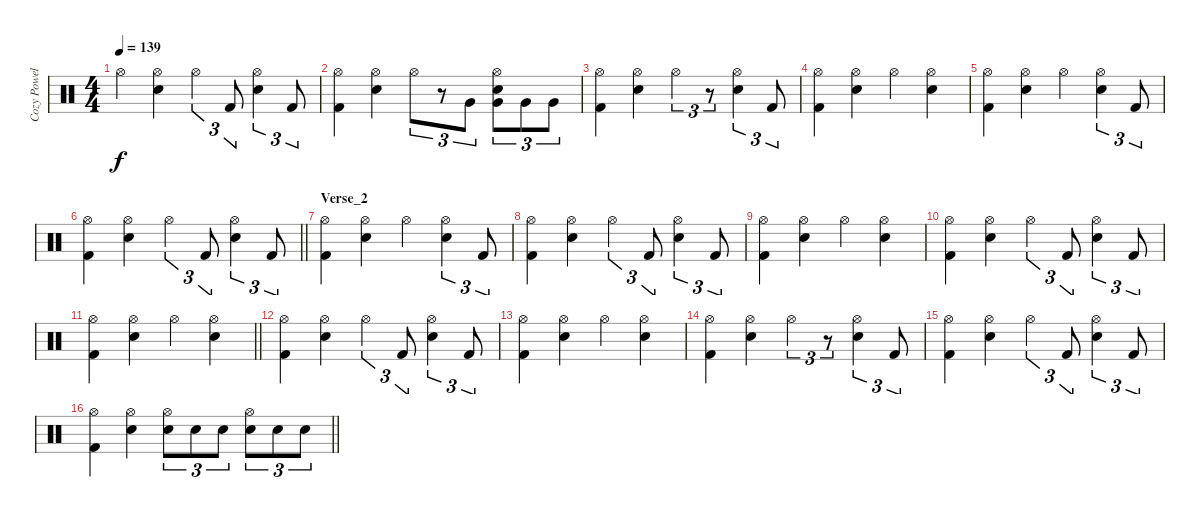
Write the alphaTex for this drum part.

\track ("Cozy Powell" "Cozy Powel") {instrument percussion}
\staff {score}
\articulation defaults
\ts (4 4)
\tempo 139
\clef neutral
\ks c "Hi-Hat (open)".4{dy f}
("Hi-Hat (open)" "Snare (hit) 2").4 "Hi-Hat (open)".4{tu (3 2)} "Kick (hit) 2".8{tu (3 2)} ("Hi-Hat (open)" "Snare (hit) 2").4{tu (3 2)} "Kick (hit) 2".8{tu (3 2)} |
("Hi-Hat (open)" "Kick (hit) 2").4 ("Hi-Hat (open)" "Snare (hit) 2").4 "Hi-Hat (open)".8{tu (3 2)} r.8{tu (3 2)} "Very Low Tom (hit)".8{tu (3 2)} ("Hi-Hat (open)" "Snare (hit) 2" "Very Low Tom (hit)").8{tu (3 2)} "Very Low Tom (hit)".8{tu (3 2)} "Very Low Tom (hit)".8{tu (3 2)} |
("Hi-Hat (open)" "Kick (hit) 2").4 ("Hi-Hat (open)" "Snare (hit) 2").4 "Hi-Hat (open)".4{tu (3 2)} r.8{tu (3 2)} ("Hi-Hat (open)" "Snare (hit) 2").4{tu (3 2)} "Kick (hit) 2".8{tu (3 2)} |
("Hi-Hat (open)" "Kick (hit) 2").4 ("Hi-Hat (open)" "Snare (hit) 2").4 "Hi-Hat (open)".4 ("Hi-Hat (open)" "Snare (hit) 2").4 |
("Hi-Hat (open)" "Kick (hit) 2").4 ("Hi-Hat (open)" "Snare (hit) 2").4 "Hi-Hat (open)".4 ("Hi-Hat (open)" "Snare (hit) 2").4{tu (3 2)} "Kick (hit) 2".8{tu (3 2)} |
\barLineRight lightlight
("Hi-Hat (open)" "Kick (hit) 2").4 ("Hi-Hat (open)" "Snare (hit) 2").4 "Hi-Hat (open)".4{tu (3 2)} "Kick (hit) 2".8{tu (3 2)} ("Hi-Hat (open)" "Snare (hit) 2").4{tu (3 2)} "Kick (hit) 2".8{tu (3 2)} |
\section ("" "Verse_2")
("Hi-Hat (open)" "Kick (hit) 2").4 ("Hi-Hat (open)" "Snare (hit) 2").4 "Hi-Hat (open)".4 ("Hi-Hat (open)" "Snare (hit) 2").4{tu (3 2)} "Kick (hit) 2".8{tu (3 2)} |
("Hi-Hat (open)" "Kick (hit) 2").4 ("Hi-Hat (open)" "Snare (hit) 2").4 "Hi-Hat (open)".4{tu (3 2)} "Kick (hit) 2".8{tu (3 2)} ("Hi-Hat (open)" "Snare (hit) 2").4{tu (3 2)} "Kick (hit) 2".8{tu (3 2)} |
("Hi-Hat (open)" "Kick (hit) 2").4 ("Hi-Hat (open)" "Snare (hit) 2").4 "Hi-Hat (open)".4 ("Hi-Hat (open)" "Snare (hit) 2").4 |
("Hi-Hat (open)" "Kick (hit) 2").4 ("Hi-Hat (open)" "Snare (hit) 2").4 "Hi-Hat (open)".4{tu (3 2)} "Kick (hit) 2".8{tu (3 2)} ("Hi-Hat (open)" "Snare (hit) 2").4{tu (3 2)} "Kick (hit) 2".8{tu (3 2)} |
\barLineRight lightlight
("Hi-Hat (open)" "Kick (hit) 2").4 ("Hi-Hat (open)" "Snare (hit) 2").4 "Hi-Hat (open)".4 ("Hi-Hat (open)" "Snare (hit) 2").4 |
("Hi-Hat (open)" "Kick (hit) 2").4 ("Hi-Hat (open)" "Snare (hit) 2").4 "Hi-Hat (open)".4{tu (3 2)} "Kick (hit) 2".8{tu (3 2)} ("Hi-Hat (open)" "Snare (hit) 2").4{tu (3 2)} "Kick (hit) 2".8{tu (3 2)} |
("Hi-Hat (open)" "Kick (hit) 2").4 ("Hi-Hat (open)" "Snare (hit) 2").4 "Hi-Hat (open)".4 ("Hi-Hat (open)" "Snare (hit) 2").4 |
("Hi-Hat (open)" "Kick (hit) 2").4 ("Hi-Hat (open)" "Snare (hit) 2").4 "Hi-Hat (open)".4{tu (3 2)} r.8{tu (3 2)} ("Hi-Hat (open)" "Snare (hit) 2").4{tu (3 2)} "Kick (hit) 2".8{tu (3 2)} |
("Hi-Hat (open)" "Kick (hit) 2").4 ("Hi-Hat (open)" "Snare (hit) 2").4 "Hi-Hat (open)".4{tu (3 2)} "Kick (hit) 2".8{tu (3 2)} ("Hi-Hat (open)" "Snare (hit) 2").4{tu (3 2)} "Kick (hit) 2".8{tu (3 2)} |
\barLineRight lightlight
("Hi-Hat (open)" "Kick (hit) 2").4 ("Hi-Hat (open)" "Snare (hit) 2").4 ("Hi-Hat (open)" "Snare (hit) 2").8{tu (3 2)} "Snare (hit) 2".8{tu (3 2)} "Snare (hit) 2".8{tu (3 2)} ("Hi-Hat (open)" "Snare (hit) 2").8{tu (3 2)} "Snare (hit) 2".8{tu (3 2)} "Snare (hit) 2".8{tu (3 2)}
